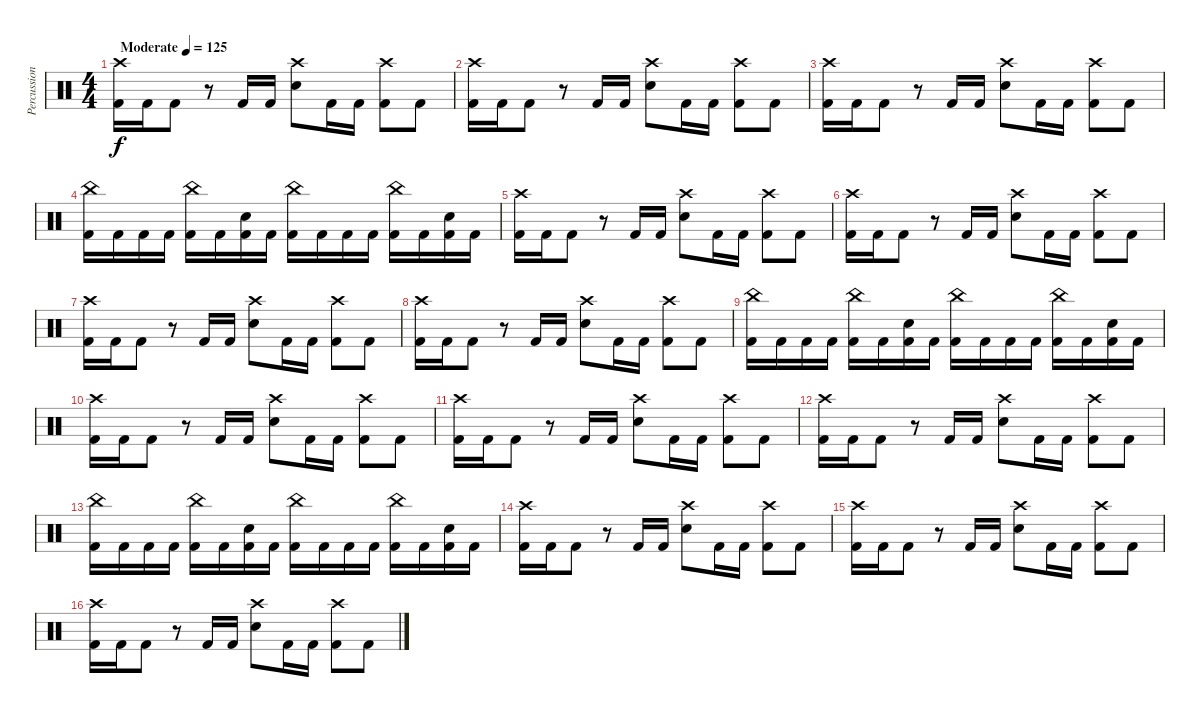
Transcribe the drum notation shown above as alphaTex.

\track ("Percussion" "Percussion") {instrument percussion}
\staff {score}
\articulation defaults
\ts (4 4)
\tempo (125 "Moderate")
\clef neutral
\ks c
("Crash high (hit)" "Kick (hit) 2").16{dy f} "Kick (hit) 2".16 "Kick (hit) 2".8 r.8 "Kick (hit) 2".16 "Kick (hit) 2".16 ("Crash high (hit)" "Snare (hit) 2").8 "Kick (hit) 2".16 "Kick (hit) 2".16 ("Crash high (hit)" "Kick (hit) 2").8 "Kick (hit) 2".8 |
("Crash high (hit)" "Kick (hit) 2").16 "Kick (hit) 2".16 "Kick (hit) 2".8 r.8 "Kick (hit) 2".16 "Kick (hit) 2".16 ("Crash high (hit)" "Snare (hit) 2").8 "Kick (hit) 2".16 "Kick (hit) 2".16 ("Crash high (hit)" "Kick (hit) 2").8 "Kick (hit) 2".8 |
("Crash high (hit)" "Kick (hit) 2").16 "Kick (hit) 2".16 "Kick (hit) 2".8 r.8 "Kick (hit) 2".16 "Kick (hit) 2".16 ("Crash high (hit)" "Snare (hit) 2").8 "Kick (hit) 2".16 "Kick (hit) 2".16 ("Crash high (hit)" "Kick (hit) 2").8 "Kick (hit) 2".8 |
("China (hit)" "Kick (hit) 2").16 "Kick (hit) 2".16 "Kick (hit) 2".16 "Kick (hit) 2".16 ("China (hit)" "Kick (hit) 2").16 "Kick (hit) 2".16 ("Snare (hit) 2" "Kick (hit) 2").16 "Kick (hit) 2".16 ("China (hit)" "Kick (hit) 2").16 "Kick (hit) 2".16 "Kick (hit) 2".16 "Kick (hit) 2".16 ("China (hit)" "Kick (hit) 2").16 "Kick (hit) 2".16 ("Snare (hit) 2" "Kick (hit) 2").16 "Kick (hit) 2".16 |
("Crash high (hit)" "Kick (hit) 2").16 "Kick (hit) 2".16 "Kick (hit) 2".8 r.8 "Kick (hit) 2".16 "Kick (hit) 2".16 ("Crash high (hit)" "Snare (hit) 2").8 "Kick (hit) 2".16 "Kick (hit) 2".16 ("Crash high (hit)" "Kick (hit) 2").8 "Kick (hit) 2".8 |
("Crash high (hit)" "Kick (hit) 2").16 "Kick (hit) 2".16 "Kick (hit) 2".8 r.8 "Kick (hit) 2".16 "Kick (hit) 2".16 ("Crash high (hit)" "Snare (hit) 2").8 "Kick (hit) 2".16 "Kick (hit) 2".16 ("Crash high (hit)" "Kick (hit) 2").8 "Kick (hit) 2".8 |
("Crash high (hit)" "Kick (hit) 2").16 "Kick (hit) 2".16 "Kick (hit) 2".8 r.8 "Kick (hit) 2".16 "Kick (hit) 2".16 ("Crash high (hit)" "Snare (hit) 2").8 "Kick (hit) 2".16 "Kick (hit) 2".16 ("Crash high (hit)" "Kick (hit) 2").8 "Kick (hit) 2".8 |
("Crash high (hit)" "Kick (hit) 2").16 "Kick (hit) 2".16 "Kick (hit) 2".8 r.8 "Kick (hit) 2".16 "Kick (hit) 2".16 ("Crash high (hit)" "Snare (hit) 2").8 "Kick (hit) 2".16 "Kick (hit) 2".16 ("Crash high (hit)" "Kick (hit) 2").8 "Kick (hit) 2".8 |
("China (hit)" "Kick (hit) 2").16 "Kick (hit) 2".16 "Kick (hit) 2".16 "Kick (hit) 2".16 ("China (hit)" "Kick (hit) 2").16 "Kick (hit) 2".16 ("Snare (hit) 2" "Kick (hit) 2").16 "Kick (hit) 2".16 ("China (hit)" "Kick (hit) 2").16 "Kick (hit) 2".16 "Kick (hit) 2".16 "Kick (hit) 2".16 ("China (hit)" "Kick (hit) 2").16 "Kick (hit) 2".16 ("Snare (hit) 2" "Kick (hit) 2").16 "Kick (hit) 2".16 |
("Crash high (hit)" "Kick (hit) 2").16 "Kick (hit) 2".16 "Kick (hit) 2".8 r.8 "Kick (hit) 2".16 "Kick (hit) 2".16 ("Crash high (hit)" "Snare (hit) 2").8 "Kick (hit) 2".16 "Kick (hit) 2".16 ("Crash high (hit)" "Kick (hit) 2").8 "Kick (hit) 2".8 |
("Crash high (hit)" "Kick (hit) 2").16 "Kick (hit) 2".16 "Kick (hit) 2".8 r.8 "Kick (hit) 2".16 "Kick (hit) 2".16 ("Crash high (hit)" "Snare (hit) 2").8 "Kick (hit) 2".16 "Kick (hit) 2".16 ("Crash high (hit)" "Kick (hit) 2").8 "Kick (hit) 2".8 |
("Crash high (hit)" "Kick (hit) 2").16 "Kick (hit) 2".16 "Kick (hit) 2".8 r.8 "Kick (hit) 2".16 "Kick (hit) 2".16 ("Crash high (hit)" "Snare (hit) 2").8 "Kick (hit) 2".16 "Kick (hit) 2".16 ("Crash high (hit)" "Kick (hit) 2").8 "Kick (hit) 2".8 |
("China (hit)" "Kick (hit) 2").16 "Kick (hit) 2".16 "Kick (hit) 2".16 "Kick (hit) 2".16 ("China (hit)" "Kick (hit) 2").16 "Kick (hit) 2".16 ("Snare (hit) 2" "Kick (hit) 2").16 "Kick (hit) 2".16 ("China (hit)" "Kick (hit) 2").16 "Kick (hit) 2".16 "Kick (hit) 2".16 "Kick (hit) 2".16 ("China (hit)" "Kick (hit) 2").16 "Kick (hit) 2".16 ("Snare (hit) 2" "Kick (hit) 2").16 "Kick (hit) 2".16 |
("Crash high (hit)" "Kick (hit) 2").16 "Kick (hit) 2".16 "Kick (hit) 2".8 r.8 "Kick (hit) 2".16 "Kick (hit) 2".16 ("Crash high (hit)" "Snare (hit) 2").8 "Kick (hit) 2".16 "Kick (hit) 2".16 ("Crash high (hit)" "Kick (hit) 2").8 "Kick (hit) 2".8 |
("Crash high (hit)" "Kick (hit) 2").16 "Kick (hit) 2".16 "Kick (hit) 2".8 r.8 "Kick (hit) 2".16 "Kick (hit) 2".16 ("Crash high (hit)" "Snare (hit) 2").8 "Kick (hit) 2".16 "Kick (hit) 2".16 ("Crash high (hit)" "Kick (hit) 2").8 "Kick (hit) 2".8 |
("Crash high (hit)" "Kick (hit) 2").16 "Kick (hit) 2".16 "Kick (hit) 2".8 r.8 "Kick (hit) 2".16 "Kick (hit) 2".16 ("Crash high (hit)" "Snare (hit) 2").8 "Kick (hit) 2".16 "Kick (hit) 2".16 ("Crash high (hit)" "Kick (hit) 2").8 "Kick (hit) 2".8
